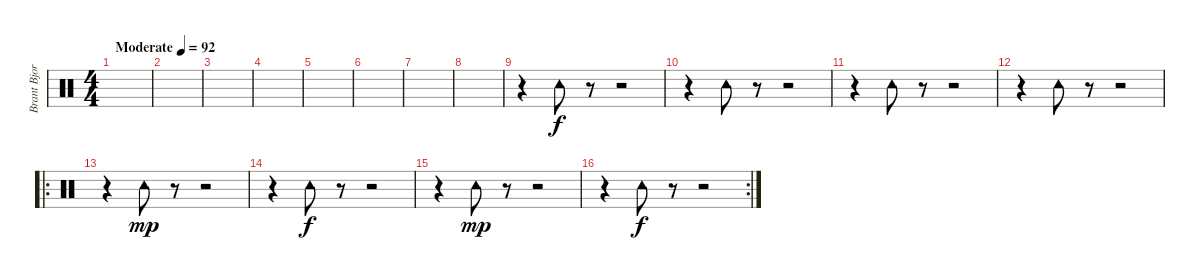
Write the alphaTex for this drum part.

\track ("Brant Bjork - Drums" "Brant Bjor") {instrument percussion}
\staff {score}
\articulation defaults
\ts (4 4)
\tempo (92 "Moderate")
\clef neutral
\ks c
|
|
|
|
|
|
|
|
r.4 "Tambourine (hit)".8 r.8 r.2 |
r.4 "Tambourine (hit)".8 r.8 r.2 |
r.4 "Tambourine (hit)".8 r.8 r.2 |
r.4 "Tambourine (hit)".8 r.8 r.2 |
\ro
r.4 "Tambourine (hit)".8{dy mp} r.8 r.2 |
r.4 "Tambourine (hit)".8{dy f} r.8 r.2 |
r.4 "Tambourine (hit)".8{dy mp} r.8 r.2 |
\rc 2
r.4 "Tambourine (hit)".8{dy f} r.8 r.2
